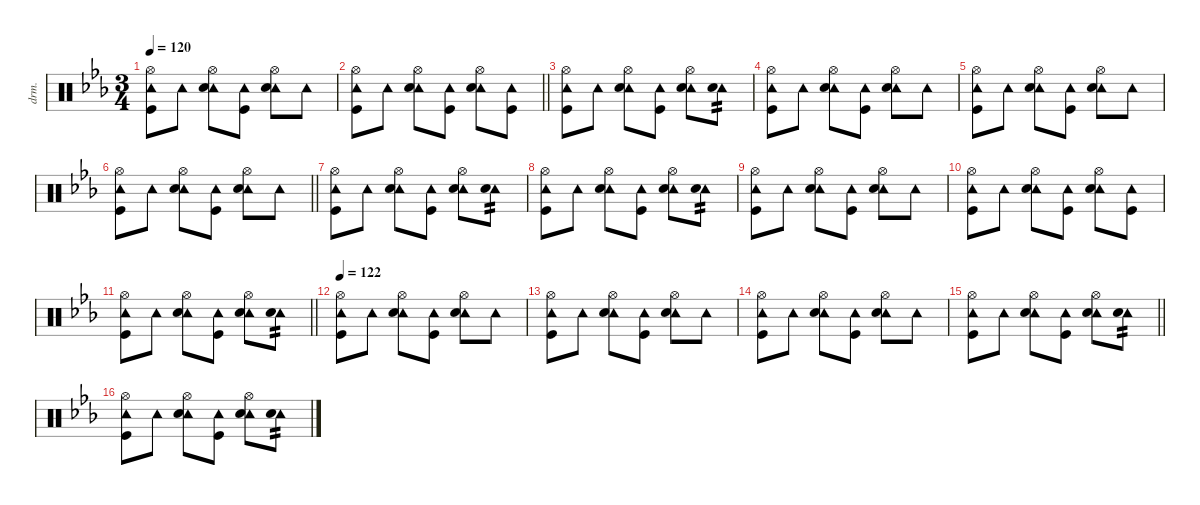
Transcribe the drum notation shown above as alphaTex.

\defaultSystemsLayout 4
\hideDynamics
\bracketExtendMode nobrackets
\otherSystemsTrackNameOrientation horizontal
\track ("Drums" "drm.") {defaultSystemsLayout 4 instrument percussion}
\staff {score}
\articulation defaults
\ts (3 4)
\tempo 120
\clef neutral
\ks eb
("Tambourine (hit)"{acc forcenatural} "Hi-Hat (open)"{acc forcenatural} "Kick (hit)"{acc forcenatural}).8{dy p beam Down} "Tambourine (hit)"{acc forcenatural}.8{dy pp beam Down} ("Tambourine (hit)"{acc forcenatural} "Hi-Hat (open)"{acc forcenatural} "Snare (hit) 2"{acc forcenatural}).8{beam Down} ("Tambourine (hit)"{acc forcenatural} "Kick (hit)"{acc forcenatural}).8{beam Down} ("Tambourine (hit)"{acc forcenatural} "Hi-Hat (open)"{acc forcenatural} "Snare (hit) 2"{acc forcenatural}).8{beam Down} "Tambourine (hit)"{acc forcenatural}.8{beam Down} |
\barLineRight lightlight
("Tambourine (hit)"{acc forcenatural} "Hi-Hat (open)"{acc forcenatural} "Kick (hit)"{acc forcenatural}).8{beam Down} "Tambourine (hit)"{acc forcenatural}.8{beam Down} ("Tambourine (hit)"{acc forcenatural} "Hi-Hat (open)"{acc forcenatural} "Snare (hit) 2"{acc forcenatural}).8{beam Down} ("Tambourine (hit)"{acc forcenatural} "Kick (hit)"{acc forcenatural}).8{beam Down} ("Tambourine (hit)"{acc forcenatural} "Hi-Hat (open)"{acc forcenatural} "Snare (hit) 2"{acc forcenatural}).8{beam Down} ("Tambourine (hit)"{acc forcenatural} "Kick (hit)"{acc forcenatural}).8{beam Down} |
("Tambourine (hit)"{acc forcenatural} "Hi-Hat (open)"{acc forcenatural} "Kick (hit)"{acc forcenatural}).8{dy p beam Down} "Tambourine (hit)"{acc forcenatural}.8{dy pp beam Down} ("Tambourine (hit)"{acc forcenatural} "Hi-Hat (open)"{acc forcenatural} "Snare (hit) 2"{acc forcenatural}).8{beam Down} ("Tambourine (hit)"{acc forcenatural} "Kick (hit)"{acc forcenatural}).8{beam Down} ("Tambourine (hit)"{acc forcenatural} "Hi-Hat (open)"{acc forcenatural} "Snare (hit) 2"{acc forcenatural}).8{beam Down} ("Tambourine (hit)"{acc forcenatural} "Snare (hit) 2"{acc forcenatural}).8{tp 2 beam Down} |
("Tambourine (hit)"{acc forcenatural} "Hi-Hat (open)"{acc forcenatural} "Kick (hit)"{acc forcenatural}).8{dy p beam Down} "Tambourine (hit)"{acc forcenatural}.8{dy pp beam Down} ("Tambourine (hit)"{acc forcenatural} "Hi-Hat (open)"{acc forcenatural} "Snare (hit) 2"{acc forcenatural}).8{beam Down} ("Tambourine (hit)"{acc forcenatural} "Kick (hit)"{acc forcenatural}).8{beam Down} ("Tambourine (hit)"{acc forcenatural} "Hi-Hat (open)"{acc forcenatural} "Snare (hit) 2"{acc forcenatural}).8{beam Down} "Tambourine (hit)"{acc forcenatural}.8{beam Down} |
("Tambourine (hit)"{acc forcenatural} "Hi-Hat (open)"{acc forcenatural} "Kick (hit)"{acc forcenatural}).8{dy p beam Down} "Tambourine (hit)"{acc forcenatural}.8{dy pp beam Down} ("Tambourine (hit)"{acc forcenatural} "Hi-Hat (open)"{acc forcenatural} "Snare (hit) 2"{acc forcenatural}).8{beam Down} ("Tambourine (hit)"{acc forcenatural} "Kick (hit)"{acc forcenatural}).8{beam Down} ("Tambourine (hit)"{acc forcenatural} "Hi-Hat (open)"{acc forcenatural} "Snare (hit) 2"{acc forcenatural}).8{beam Down} "Tambourine (hit)"{acc forcenatural}.8{beam Down} |
\barLineRight lightlight
("Tambourine (hit)"{acc forcenatural} "Hi-Hat (open)"{acc forcenatural} "Kick (hit)"{acc forcenatural}).8{dy p beam Down} "Tambourine (hit)"{acc forcenatural}.8{dy pp beam Down} ("Tambourine (hit)"{acc forcenatural} "Hi-Hat (open)"{acc forcenatural} "Snare (hit) 2"{acc forcenatural}).8{beam Down} ("Tambourine (hit)"{acc forcenatural} "Kick (hit)"{acc forcenatural}).8{beam Down} ("Tambourine (hit)"{acc forcenatural} "Hi-Hat (open)"{acc forcenatural} "Snare (hit) 2"{acc forcenatural}).8{beam Down} "Tambourine (hit)"{acc forcenatural}.8{beam Down} |
("Tambourine (hit)"{acc forcenatural} "Hi-Hat (open)"{acc forcenatural} "Kick (hit)"{acc forcenatural}).8{dy p beam Down} "Tambourine (hit)"{acc forcenatural}.8{dy pp beam Down} ("Tambourine (hit)"{acc forcenatural} "Hi-Hat (open)"{acc forcenatural} "Snare (hit) 2"{acc forcenatural}).8{beam Down} ("Tambourine (hit)"{acc forcenatural} "Kick (hit)"{acc forcenatural}).8{beam Down} ("Tambourine (hit)"{acc forcenatural} "Hi-Hat (open)"{acc forcenatural} "Snare (hit) 2"{acc forcenatural}).8{beam Down} ("Tambourine (hit)"{acc forcenatural} "Snare (hit) 2"{acc forcenatural}).8{tp 2 beam Down} |
("Tambourine (hit)"{acc forcenatural} "Hi-Hat (open)"{acc forcenatural} "Kick (hit)"{acc forcenatural}).8{beam Down} "Tambourine (hit)"{acc forcenatural}.8{beam Down} ("Tambourine (hit)"{acc forcenatural} "Hi-Hat (open)"{acc forcenatural} "Snare (hit) 2"{acc forcenatural}).8{beam Down} ("Tambourine (hit)"{acc forcenatural} "Kick (hit)"{acc forcenatural}).8{beam Down} ("Tambourine (hit)"{acc forcenatural} "Hi-Hat (open)"{acc forcenatural} "Snare (hit) 2"{acc forcenatural}).8{beam Down} ("Tambourine (hit)"{acc forcenatural} "Snare (hit) 2"{acc forcenatural}).8{tp 2 beam Down} |
("Tambourine (hit)"{acc forcenatural} "Hi-Hat (open)"{acc forcenatural} "Kick (hit)"{acc forcenatural}).8{dy p beam Down} "Tambourine (hit)"{acc forcenatural}.8{dy pp beam Down} ("Tambourine (hit)"{acc forcenatural} "Hi-Hat (open)"{acc forcenatural} "Snare (hit) 2"{acc forcenatural}).8{beam Down} ("Tambourine (hit)"{acc forcenatural} "Kick (hit)"{acc forcenatural}).8{beam Down} ("Tambourine (hit)"{acc forcenatural} "Hi-Hat (open)"{acc forcenatural} "Snare (hit) 2"{acc forcenatural}).8{beam Down} "Tambourine (hit)"{acc forcenatural}.8{beam Down} |
("Tambourine (hit)"{acc forcenatural} "Hi-Hat (open)"{acc forcenatural} "Kick (hit)"{acc forcenatural}).8{beam Down} "Tambourine (hit)"{acc forcenatural}.8{beam Down} ("Tambourine (hit)"{acc forcenatural} "Hi-Hat (open)"{acc forcenatural} "Snare (hit) 2"{acc forcenatural}).8{beam Down} ("Tambourine (hit)"{acc forcenatural} "Kick (hit)"{acc forcenatural}).8{beam Down} ("Tambourine (hit)"{acc forcenatural} "Hi-Hat (open)"{acc forcenatural} "Snare (hit) 2"{acc forcenatural}).8{beam Down} ("Tambourine (hit)"{acc forcenatural} "Kick (hit)"{acc forcenatural}).8{beam Down} |
\barLineRight lightlight
("Tambourine (hit)"{acc forcenatural} "Hi-Hat (open)"{acc forcenatural} "Kick (hit)"{acc forcenatural}).8{dy p beam Down} "Tambourine (hit)"{acc forcenatural}.8{dy pp beam Down} ("Tambourine (hit)"{acc forcenatural} "Hi-Hat (open)"{acc forcenatural} "Snare (hit) 2"{acc forcenatural}).8{beam Down} ("Tambourine (hit)"{acc forcenatural} "Kick (hit)"{acc forcenatural}).8{beam Down} ("Tambourine (hit)"{acc forcenatural} "Hi-Hat (open)"{acc forcenatural} "Snare (hit) 2"{acc forcenatural}).8{beam Down} ("Tambourine (hit)"{acc forcenatural} "Snare (hit) 2"{acc forcenatural}).8{tp 2 beam Down} |
\tempo 122
("Tambourine (hit)"{acc forcenatural} "Hi-Hat (open)"{acc forcenatural} "Kick (hit)"{acc forcenatural}).8{dy p beam Down} "Tambourine (hit)"{acc forcenatural}.8{dy pp beam Down} ("Tambourine (hit)"{acc forcenatural} "Hi-Hat (open)"{acc forcenatural} "Snare (hit) 2"{acc forcenatural}).8{beam Down} ("Tambourine (hit)"{acc forcenatural} "Kick (hit)"{acc forcenatural}).8{beam Down} ("Tambourine (hit)"{acc forcenatural} "Hi-Hat (open)"{acc forcenatural} "Snare (hit) 2"{acc forcenatural}).8{beam Down} "Tambourine (hit)"{acc forcenatural}.8{beam Down} |
("Tambourine (hit)"{acc forcenatural} "Hi-Hat (open)"{acc forcenatural} "Kick (hit)"{acc forcenatural}).8{dy p beam Down} "Tambourine (hit)"{acc forcenatural}.8{dy pp beam Down} ("Tambourine (hit)"{acc forcenatural} "Hi-Hat (open)"{acc forcenatural} "Snare (hit) 2"{acc forcenatural}).8{beam Down} ("Tambourine (hit)"{acc forcenatural} "Kick (hit)"{acc forcenatural}).8{beam Down} ("Tambourine (hit)"{acc forcenatural} "Hi-Hat (open)"{acc forcenatural} "Snare (hit) 2"{acc forcenatural}).8{beam Down} "Tambourine (hit)"{acc forcenatural}.8{beam Down} |
("Tambourine (hit)"{acc forcenatural} "Hi-Hat (open)"{acc forcenatural} "Kick (hit)"{acc forcenatural}).8{dy p beam Down} "Tambourine (hit)"{acc forcenatural}.8{dy pp beam Down} ("Tambourine (hit)"{acc forcenatural} "Hi-Hat (open)"{acc forcenatural} "Snare (hit) 2"{acc forcenatural}).8{beam Down} ("Tambourine (hit)"{acc forcenatural} "Kick (hit)"{acc forcenatural}).8{beam Down} ("Tambourine (hit)"{acc forcenatural} "Hi-Hat (open)"{acc forcenatural} "Snare (hit) 2"{acc forcenatural}).8{beam Down} "Tambourine (hit)"{acc forcenatural}.8{beam Down} |
\barLineRight lightlight
("Tambourine (hit)"{acc forcenatural} "Hi-Hat (open)"{acc forcenatural} "Kick (hit)"{acc forcenatural}).8{dy p beam Down} "Tambourine (hit)"{acc forcenatural}.8{dy pp beam Down} ("Tambourine (hit)"{acc forcenatural} "Hi-Hat (open)"{acc forcenatural} "Snare (hit) 2"{acc forcenatural}).8{beam Down} ("Tambourine (hit)"{acc forcenatural} "Kick (hit)"{acc forcenatural}).8{beam Down} ("Tambourine (hit)"{acc forcenatural} "Hi-Hat (open)"{acc forcenatural} "Snare (hit) 2"{acc forcenatural}).8{beam Down} ("Tambourine (hit)"{acc forcenatural} "Snare (hit) 2"{acc forcenatural}).8{tp 2 beam Down} |
("Tambourine (hit)"{acc forcenatural} "Hi-Hat (open)"{acc forcenatural} "Kick (hit)"{acc forcenatural}).8{beam Down} "Tambourine (hit)"{acc forcenatural}.8{beam Down} ("Tambourine (hit)"{acc forcenatural} "Hi-Hat (open)"{acc forcenatural} "Snare (hit) 2"{acc forcenatural}).8{beam Down} ("Tambourine (hit)"{acc forcenatural} "Kick (hit)"{acc forcenatural}).8{beam Down} ("Tambourine (hit)"{acc forcenatural} "Hi-Hat (open)"{acc forcenatural} "Snare (hit) 2"{acc forcenatural}).8{beam Down} ("Tambourine (hit)"{acc forcenatural} "Snare (hit) 2"{acc forcenatural}).8{tp 2 beam Down}
